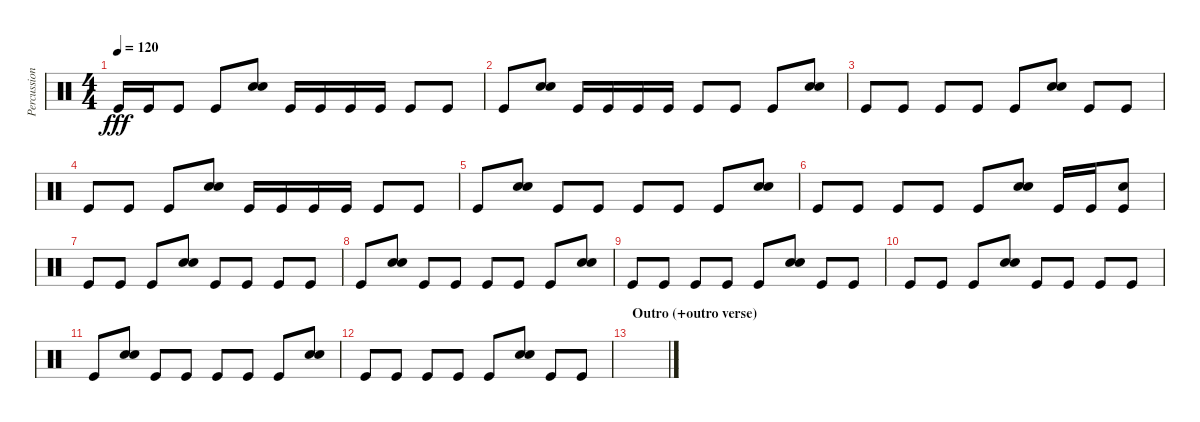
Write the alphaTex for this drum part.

\track ("Percussion" "Percussion") {instrument percussion}
\staff {score}
\articulation defaults
\ts (4 4)
\tempo 120
\clef neutral
\ks c "Kick (hit)".16{dy fff} "Kick (hit)".16 "Kick (hit)".8 "Kick (hit)".8
("Snare (hit) 2" "Electric Snare (hit)").8 "Kick (hit)".16 "Kick (hit)".16 "Kick (hit)".16 "Kick (hit)".16 "Kick (hit)".8 "Kick (hit)".8 |
"Kick (hit)".8 ("Snare (hit) 2" "Electric Snare (hit)").8 "Kick (hit)".16 "Kick (hit)".16 "Kick (hit)".16 "Kick (hit)".16 "Kick (hit)".8 "Kick (hit)".8 "Kick (hit)".8 ("Snare (hit) 2" "Electric Snare (hit)").8 |
"Kick (hit)".8 "Kick (hit)".8 "Kick (hit)".8 "Kick (hit)".8 "Kick (hit)".8 ("Snare (hit) 2" "Electric Snare (hit)").8 "Kick (hit)".8 "Kick (hit)".8 |
"Kick (hit)".8 "Kick (hit)".8 "Kick (hit)".8 ("Snare (hit) 2" "Electric Snare (hit)").8 "Kick (hit)".16 "Kick (hit)".16 "Kick (hit)".16 "Kick (hit)".16 "Kick (hit)".8 "Kick (hit)".8 |
"Kick (hit)".8 ("Snare (hit) 2" "Electric Snare (hit)").8 "Kick (hit)".8 "Kick (hit)".8 "Kick (hit)".8 "Kick (hit)".8 "Kick (hit)".8 ("Snare (hit) 2" "Electric Snare (hit)").8 |
"Kick (hit)".8 "Kick (hit)".8 "Kick (hit)".8 "Kick (hit)".8 "Kick (hit)".8 ("Snare (hit) 2" "Electric Snare (hit)").8 "Kick (hit)".16 "Kick (hit)".16 ("Snare (hit) 2" "Kick (hit)").8 |
"Kick (hit)".8 "Kick (hit)".8 "Kick (hit)".8 ("Snare (hit) 2" "Electric Snare (hit)").8 "Kick (hit)".8 "Kick (hit)".8 "Kick (hit)".8 "Kick (hit)".8 |
"Kick (hit)".8 ("Snare (hit) 2" "Electric Snare (hit)").8 "Kick (hit)".8 "Kick (hit)".8 "Kick (hit)".8 "Kick (hit)".8 "Kick (hit)".8 ("Snare (hit) 2" "Electric Snare (hit)").8 |
"Kick (hit)".8 "Kick (hit)".8 "Kick (hit)".8 "Kick (hit)".8 "Kick (hit)".8 ("Snare (hit) 2" "Electric Snare (hit)").8 "Kick (hit)".8 "Kick (hit)".8 |
"Kick (hit)".8 "Kick (hit)".8 "Kick (hit)".8 ("Snare (hit) 2" "Electric Snare (hit)").8 "Kick (hit)".8 "Kick (hit)".8 "Kick (hit)".8 "Kick (hit)".8 |
"Kick (hit)".8 ("Snare (hit) 2" "Electric Snare (hit)").8 "Kick (hit)".8 "Kick (hit)".8 "Kick (hit)".8 "Kick (hit)".8 "Kick (hit)".8 ("Snare (hit) 2" "Electric Snare (hit)").8 |
"Kick (hit)".8 "Kick (hit)".8 "Kick (hit)".8 "Kick (hit)".8 "Kick (hit)".8 ("Snare (hit) 2" "Electric Snare (hit)").8 "Kick (hit)".8 "Kick (hit)".8 |
\section ("" "Outro (+outro verse)")
